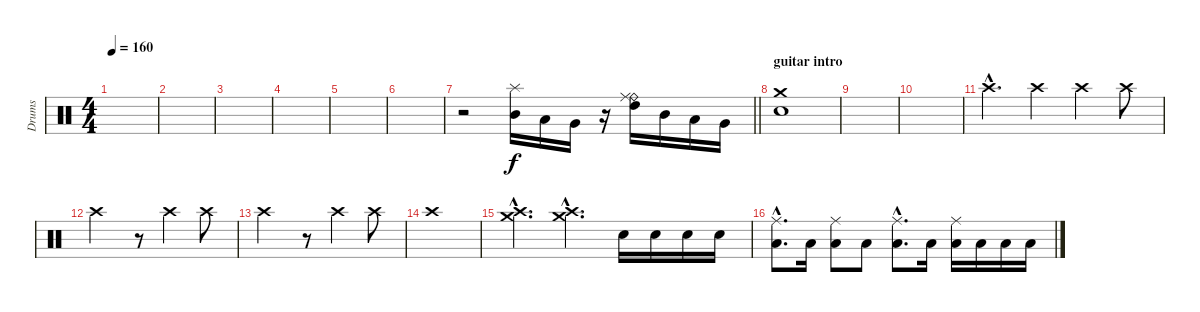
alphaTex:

\track ("Drums" "Drums") {instrument percussion}
\staff {score}
\articulation defaults
\ts (4 4)
\tempo 160
\clef neutral
\ks c
|
|
|
|
|
|
\barLineRight lightlight
r.2 ("Mid Tom (hit)" "Splash (hit)").16 "Low Tom (hit)".16 "Very Low Tom (hit)".16 r.16 ("High Tom (hit)" "Ride (bell)" "Ride (middle)").16 "Mid Tom (hit)".16 "Low Tom (hit)".16 "Very Low Tom (hit)".16 |
\section ("" "guitar intro")
("Crash medium (hit)" "Electric Snare (hit)").1{dy f} |
|
|
"Crash high (hit)"{hac}.4{d} "Crash high (hit)".4 "Crash high (hit)".4 "Crash high (hit)".8 |
"Crash high (hit)".2 r.8 "Crash high (hit)".4 "Crash high (hit)".8 |
"Crash high (hit)".2 r.8 "Crash high (hit)".4 "Crash high (hit)".8 |
"Crash high (hit)".1 |
("Crash medium (hit)"{hac} "Crash high (hit)"{hac}).4{d} ("Crash medium (hit)"{hac} "Crash high (hit)"{hac}).4{d} "Snare (hit) 2".16 "Snare (hit) 2".16 "Snare (hit) 2".16 "Snare (hit) 2".16 |
("Ride (middle)"{hac} "Low Tom (hit)"{hac}).8{d} "Low Tom (hit)".16 ("Ride (middle)" "Low Tom (hit)").8 "Low Tom (hit)".8 ("Ride (middle)"{hac} "Low Tom (hit)"{hac}).8{d} "Low Tom (hit)".16 ("Ride (middle)" "Low Tom (hit)").16 "Low Tom (hit)".16 "Low Tom (hit)".16 "Low Tom (hit)".16
